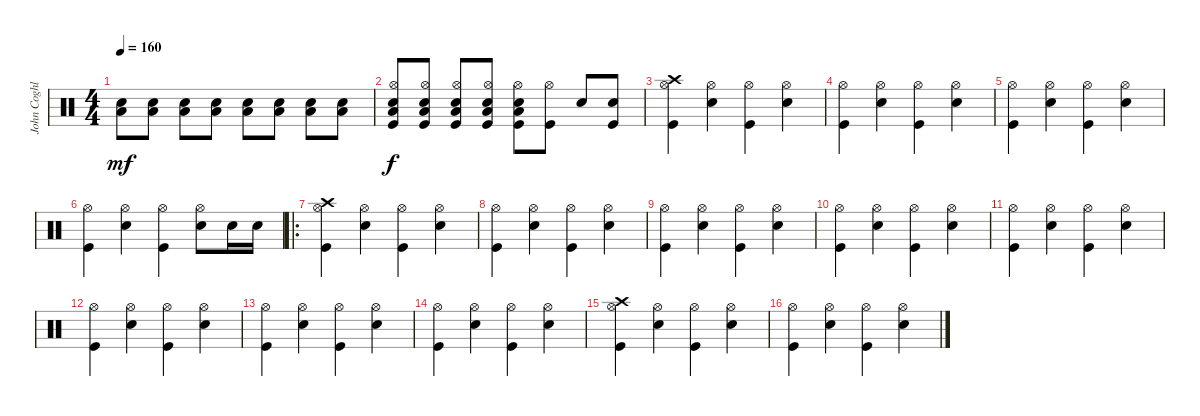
\track ("John Coghlan" "John Coghl") {instrument percussion}
\staff {score}
\articulation defaults
\ts (4 4)
\tempo 160
\clef neutral
\ks c
("Low Floor Tom (hit)" "Electric Snare (hit)").8{dy mf} ("Low Floor Tom (hit)" "Electric Snare (hit)").8 ("Low Floor Tom (hit)" "Electric Snare (hit)").8 ("Low Floor Tom (hit)" "Electric Snare (hit)").8 ("Low Floor Tom (hit)" "Electric Snare (hit)").8 ("Low Floor Tom (hit)" "Electric Snare (hit)").8 ("Low Floor Tom (hit)" "Electric Snare (hit)").8 ("Low Floor Tom (hit)" "Electric Snare (hit)").8 |
("Hi-Hat (open)" "Low Floor Tom (hit)" "Electric Snare (hit)" "Kick (hit)").8{dy f} ("Hi-Hat (open)" "Low Floor Tom (hit)" "Electric Snare (hit)" "Kick (hit)").8 ("Hi-Hat (open)" "Low Floor Tom (hit)" "Electric Snare (hit)" "Kick (hit)").8 ("Hi-Hat (open)" "Low Floor Tom (hit)" "Electric Snare (hit)" "Kick (hit)").8 ("Hi-Hat (open)" "Low Floor Tom (hit)" "Electric Snare (hit)" "Kick (hit)").8 ("Hi-Hat (open)" "Kick (hit)").8 "Electric Snare (hit)".8 ("Electric Snare (hit)" "Kick (hit)").8 |
("Crash high (hit)" "Hi-Hat (open)" "Kick (hit)").4 ("Hi-Hat (open)" "Electric Snare (hit)").4 ("Hi-Hat (open)" "Kick (hit)").4 ("Hi-Hat (open)" "Electric Snare (hit)").4 |
("Hi-Hat (open)" "Kick (hit)").4 ("Hi-Hat (open)" "Electric Snare (hit)").4 ("Hi-Hat (open)" "Kick (hit)").4 ("Hi-Hat (open)" "Electric Snare (hit)").4 |
("Hi-Hat (open)" "Kick (hit)").4 ("Hi-Hat (open)" "Electric Snare (hit)").4 ("Hi-Hat (open)" "Kick (hit)").4 ("Hi-Hat (open)" "Electric Snare (hit)").4 |
("Hi-Hat (open)" "Kick (hit)").4 ("Hi-Hat (open)" "Electric Snare (hit)").4 ("Hi-Hat (open)" "Kick (hit)").4 ("Hi-Hat (open)" "Electric Snare (hit)").8 "Electric Snare (hit)".16 "Electric Snare (hit)".16 |
\ro
("Crash high (hit)" "Hi-Hat (open)" "Kick (hit)").4 ("Hi-Hat (open)" "Electric Snare (hit)").4 ("Hi-Hat (open)" "Kick (hit)").4 ("Hi-Hat (open)" "Electric Snare (hit)").4 |
("Hi-Hat (open)" "Kick (hit)").4 ("Hi-Hat (open)" "Electric Snare (hit)").4 ("Hi-Hat (open)" "Kick (hit)").4 ("Hi-Hat (open)" "Electric Snare (hit)").4 |
("Hi-Hat (open)" "Kick (hit)").4 ("Hi-Hat (open)" "Electric Snare (hit)").4 ("Hi-Hat (open)" "Kick (hit)").4 ("Hi-Hat (open)" "Electric Snare (hit)").4 |
("Hi-Hat (open)" "Kick (hit)").4 ("Electric Snare (hit)" "Hi-Hat (open)").4 ("Hi-Hat (open)" "Kick (hit)").4 ("Electric Snare (hit)" "Hi-Hat (open)").4 |
("Hi-Hat (open)" "Kick (hit)").4 ("Electric Snare (hit)" "Hi-Hat (open)").4 ("Hi-Hat (open)" "Kick (hit)").4 ("Electric Snare (hit)" "Hi-Hat (open)").4 |
("Hi-Hat (open)" "Kick (hit)").4 ("Electric Snare (hit)" "Hi-Hat (open)").4 ("Hi-Hat (open)" "Kick (hit)").4 ("Electric Snare (hit)" "Hi-Hat (open)").4 |
("Hi-Hat (open)" "Kick (hit)").4 ("Electric Snare (hit)" "Hi-Hat (open)").4 ("Hi-Hat (open)" "Kick (hit)").4 ("Electric Snare (hit)" "Hi-Hat (open)").4 |
("Hi-Hat (open)" "Kick (hit)").4 ("Electric Snare (hit)" "Hi-Hat (open)").4 ("Hi-Hat (open)" "Kick (hit)").4 ("Electric Snare (hit)" "Hi-Hat (open)").4 |
("Crash high (hit)" "Hi-Hat (open)" "Kick (hit)").4 ("Electric Snare (hit)" "Hi-Hat (open)").4 ("Hi-Hat (open)" "Kick (hit)").4 ("Electric Snare (hit)" "Hi-Hat (open)").4 |
("Hi-Hat (open)" "Kick (hit)").4 ("Electric Snare (hit)" "Hi-Hat (open)").4 ("Hi-Hat (open)" "Kick (hit)").4 ("Electric Snare (hit)" "Hi-Hat (open)").4
